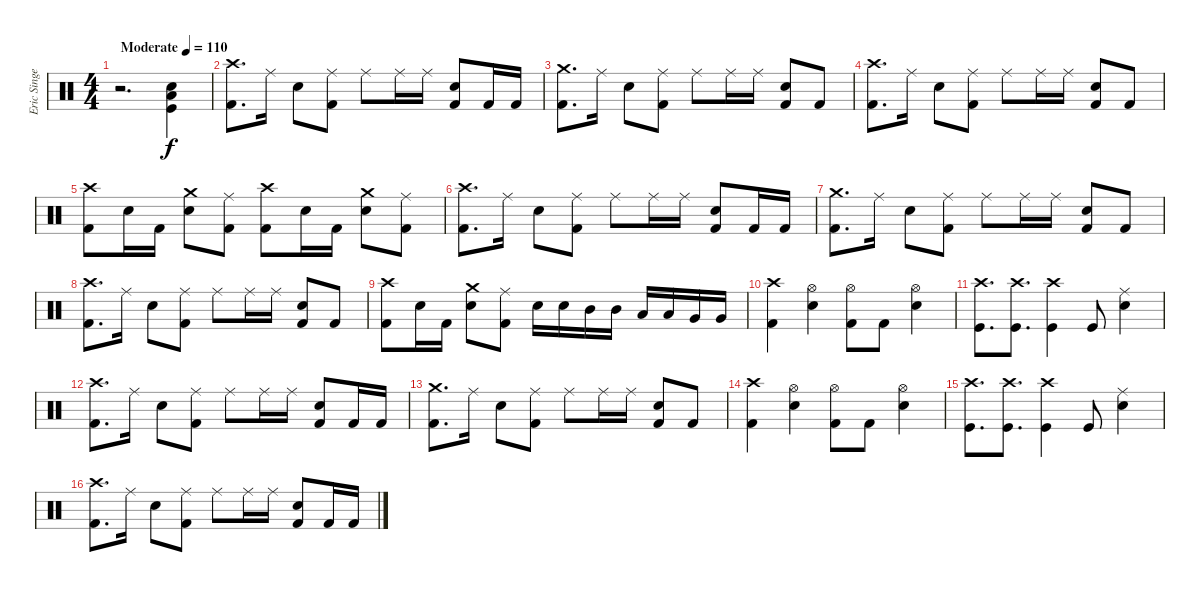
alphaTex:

\track ("Eric Singer" "Eric Singe") {instrument percussion}
\staff {score}
\articulation defaults
\ts (4 4)
\tempo (110 "Moderate")
\clef neutral
\ks c
r.2{d dy f} ("Snare (hit) 2" "Kick (hit)" "Low Floor Tom (hit)").4 |
("Crash high (hit)" "Kick (hit) 2").8{d} "Ride (middle)".16 "Electric Snare (hit)".8 ("Ride (middle)" "Kick (hit) 2").8 "Ride (middle)".8 "Ride (middle)".16 "Ride (middle)".16 ("Electric Snare (hit)" "Kick (hit) 2").8 "Kick (hit) 2".16 "Kick (hit) 2".16 |
("Crash medium (hit)" "Kick (hit) 2").8{d} "Ride (middle)".16 "Electric Snare (hit)".8 ("Ride (middle)" "Kick (hit) 2").8 "Ride (middle)".8 "Ride (middle)".16 "Ride (middle)".16 ("Electric Snare (hit)" "Kick (hit) 2").8 "Kick (hit) 2".8 |
("Crash high (hit)" "Kick (hit) 2").8{d} "Ride (middle)".16 "Electric Snare (hit)".8 ("Ride (middle)" "Kick (hit) 2").8 "Ride (middle)".8 "Ride (middle)".16 "Ride (middle)".16 ("Electric Snare (hit)" "Kick (hit) 2").8 "Kick (hit) 2".8 |
("Crash high (hit)" "Kick (hit) 2").8 "Snare (hit) 2".16 "Kick (hit) 2".16 ("Crash medium (hit)" "Snare (hit) 2").8 ("Ride (middle)" "Kick (hit) 2").8 ("Crash high (hit)" "Kick (hit) 2").8 "Snare (hit) 2".16 "Kick (hit) 2".16 ("Crash medium (hit)" "Snare (hit) 2").8 ("Ride (middle)" "Kick (hit) 2").8 |
("Crash high (hit)" "Kick (hit) 2").8{d} "Ride (middle)".16 "Electric Snare (hit)".8 ("Ride (middle)" "Kick (hit) 2").8 "Ride (middle)".8 "Ride (middle)".16 "Ride (middle)".16 ("Electric Snare (hit)" "Kick (hit) 2").8 "Kick (hit) 2".16 "Kick (hit) 2".16 |
("Crash medium (hit)" "Kick (hit) 2").8{d} "Ride (middle)".16 "Electric Snare (hit)".8 ("Ride (middle)" "Kick (hit) 2").8 "Ride (middle)".8 "Ride (middle)".16 "Ride (middle)".16 ("Electric Snare (hit)" "Kick (hit) 2").8 "Kick (hit) 2".8 |
("Crash high (hit)" "Kick (hit) 2").8{d} "Ride (middle)".16 "Electric Snare (hit)".8 ("Ride (middle)" "Kick (hit) 2").8 "Ride (middle)".8 "Ride (middle)".16 "Ride (middle)".16 ("Electric Snare (hit)" "Kick (hit) 2").8 "Kick (hit) 2".8 |
("Crash high (hit)" "Kick (hit) 2").8 "Snare (hit) 2".16 "Kick (hit) 2".16 ("Crash medium (hit)" "Snare (hit) 2").8 ("Ride (middle)" "Kick (hit) 2").8 "Snare (hit) 2".16 "Snare (hit) 2".16 "Mid Tom (hit)".16 "Mid Tom (hit)".16 "Low Tom (hit)".16 "Low Tom (hit)".16 "Very Low Tom (hit)".16 "Very Low Tom (hit)".16 |
("Crash high (hit)" "Kick (hit) 2").4 ("Hi-Hat (open)" "Snare (hit) 2").4 ("Hi-Hat (open)" "Kick (hit) 2").8 "Kick (hit) 2".8 ("Hi-Hat (open)" "Snare (hit) 2").4 |
("Crash high (hit)" "Kick (hit)").8{d} ("Crash high (hit)" "Kick (hit)").8{d} ("Crash high (hit)" "Kick (hit)").4 "Kick (hit)".8 ("Ride (middle)" "Snare (hit) 2").4 |
("Crash high (hit)" "Kick (hit) 2").8{d} "Ride (middle)".16 "Electric Snare (hit)".8 ("Ride (middle)" "Kick (hit) 2").8 "Ride (middle)".8 "Ride (middle)".16 "Ride (middle)".16 ("Electric Snare (hit)" "Kick (hit) 2").8 "Kick (hit) 2".16 "Kick (hit) 2".16 |
("Crash medium (hit)" "Kick (hit) 2").8{d} "Ride (middle)".16 "Electric Snare (hit)".8 ("Ride (middle)" "Kick (hit) 2").8 "Ride (middle)".8 "Ride (middle)".16 "Ride (middle)".16 ("Electric Snare (hit)" "Kick (hit) 2").8 "Kick (hit) 2".8 |
("Crash high (hit)" "Kick (hit) 2").4 ("Hi-Hat (open)" "Snare (hit) 2").4 ("Hi-Hat (open)" "Kick (hit) 2").8 "Kick (hit) 2".8 ("Hi-Hat (open)" "Snare (hit) 2").4 |
("Crash high (hit)" "Kick (hit)").8{d} ("Crash high (hit)" "Kick (hit)").8{d} ("Crash high (hit)" "Kick (hit)").4 "Kick (hit)".8 ("Ride (middle)" "Snare (hit) 2").4 |
("Crash high (hit)" "Kick (hit) 2").8{d} "Ride (middle)".16 "Electric Snare (hit)".8 ("Ride (middle)" "Kick (hit) 2").8 "Ride (middle)".8 "Ride (middle)".16 "Ride (middle)".16 ("Electric Snare (hit)" "Kick (hit) 2").8 "Kick (hit) 2".16 "Kick (hit) 2".16
